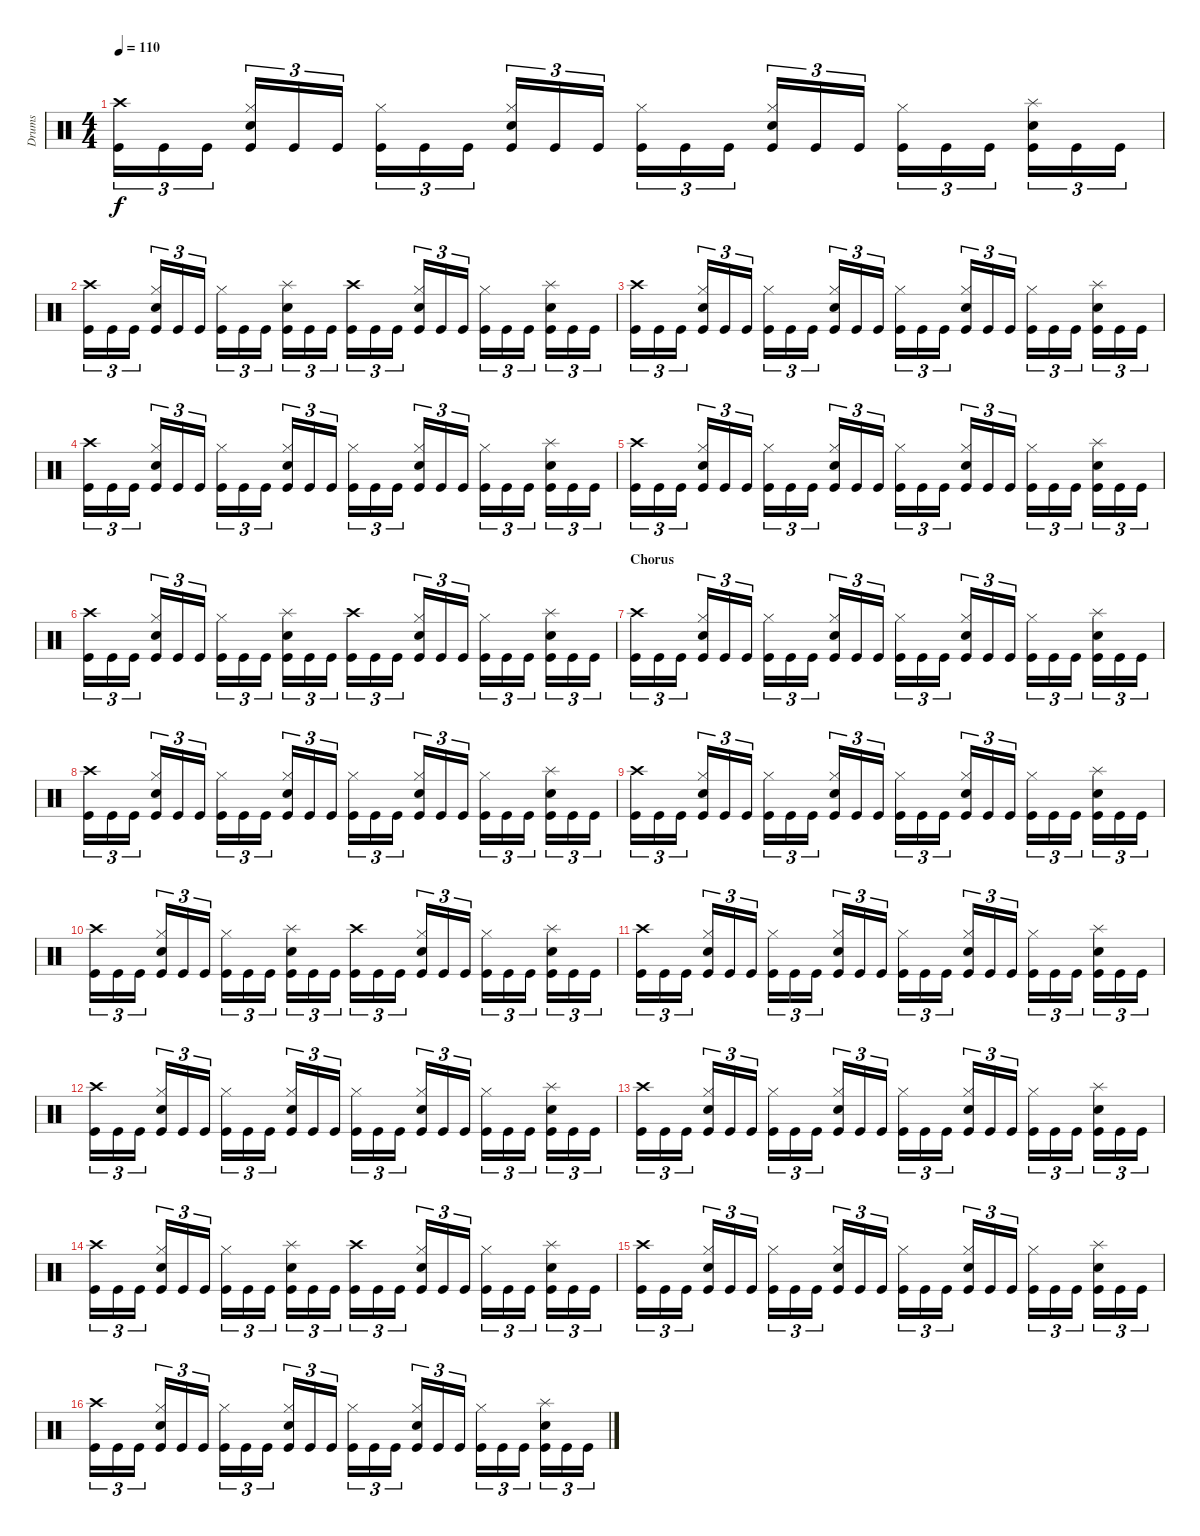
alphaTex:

\track ("Drums" "Drums") {instrument percussion}
\staff {score}
\articulation defaults
\ts (4 4)
\tempo 110
\clef neutral
\ks c
("Crash high (hit)" "Kick (hit)").16{tu (3 2) dy f} "Kick (hit)".16{tu (3 2)} "Kick (hit)".16{tu (3 2)} ("Hi-Hat (closed)" "Snare (hit) 2" "Kick (hit)").16{tu (3 2)} "Kick (hit)".16{tu (3 2)} "Kick (hit)".16{tu (3 2)} ("Hi-Hat (closed)" "Kick (hit)").16{tu (3 2)} "Kick (hit)".16{tu (3 2)} "Kick (hit)".16{tu (3 2)} ("Hi-Hat (closed)" "Snare (hit) 2" "Kick (hit)").16{tu (3 2)} "Kick (hit)".16{tu (3 2)} "Kick (hit)".16{tu (3 2)} ("Hi-Hat (closed)" "Kick (hit)").16{tu (3 2)} "Kick (hit)".16{tu (3 2)} "Kick (hit)".16{tu (3 2)} ("Hi-Hat (closed)" "Snare (hit) 2" "Kick (hit)").16{tu (3 2)} "Kick (hit)".16{tu (3 2)} "Kick (hit)".16{tu (3 2)} ("Hi-Hat (closed)" "Kick (hit)").16{tu (3 2)} "Kick (hit)".16{tu (3 2)} "Kick (hit)".16{tu (3 2)} ("Splash (hit)" "Snare (hit) 2" "Kick (hit)").16{tu (3 2)} "Kick (hit)".16{tu (3 2)} "Kick (hit)".16{tu (3 2)} |
("Crash high (hit)" "Kick (hit)").16{tu (3 2)} "Kick (hit)".16{tu (3 2)} "Kick (hit)".16{tu (3 2)} ("Hi-Hat (closed)" "Snare (hit) 2" "Kick (hit)").16{tu (3 2)} "Kick (hit)".16{tu (3 2)} "Kick (hit)".16{tu (3 2)} ("Hi-Hat (closed)" "Kick (hit)").16{tu (3 2)} "Kick (hit)".16{tu (3 2)} "Kick (hit)".16{tu (3 2)} ("Splash (hit)" "Snare (hit) 2" "Kick (hit)").16{tu (3 2)} "Kick (hit)".16{tu (3 2)} "Kick (hit)".16{tu (3 2)} ("Crash high (hit)" "Kick (hit)").16{tu (3 2)} "Kick (hit)".16{tu (3 2)} "Kick (hit)".16{tu (3 2)} ("Hi-Hat (closed)" "Snare (hit) 2" "Kick (hit)").16{tu (3 2)} "Kick (hit)".16{tu (3 2)} "Kick (hit)".16{tu (3 2)} ("Hi-Hat (closed)" "Kick (hit)").16{tu (3 2)} "Kick (hit)".16{tu (3 2)} "Kick (hit)".16{tu (3 2)} ("Splash (hit)" "Snare (hit) 2" "Kick (hit)").16{tu (3 2)} "Kick (hit)".16{tu (3 2)} "Kick (hit)".16{tu (3 2)} |
("Crash high (hit)" "Kick (hit)").16{tu (3 2)} "Kick (hit)".16{tu (3 2)} "Kick (hit)".16{tu (3 2)} ("Hi-Hat (closed)" "Snare (hit) 2" "Kick (hit)").16{tu (3 2)} "Kick (hit)".16{tu (3 2)} "Kick (hit)".16{tu (3 2)} ("Hi-Hat (closed)" "Kick (hit)").16{tu (3 2)} "Kick (hit)".16{tu (3 2)} "Kick (hit)".16{tu (3 2)} ("Hi-Hat (closed)" "Snare (hit) 2" "Kick (hit)").16{tu (3 2)} "Kick (hit)".16{tu (3 2)} "Kick (hit)".16{tu (3 2)} ("Hi-Hat (closed)" "Kick (hit)").16{tu (3 2)} "Kick (hit)".16{tu (3 2)} "Kick (hit)".16{tu (3 2)} ("Hi-Hat (closed)" "Snare (hit) 2" "Kick (hit)").16{tu (3 2)} "Kick (hit)".16{tu (3 2)} "Kick (hit)".16{tu (3 2)} ("Hi-Hat (closed)" "Kick (hit)").16{tu (3 2)} "Kick (hit)".16{tu (3 2)} "Kick (hit)".16{tu (3 2)} ("Splash (hit)" "Snare (hit) 2" "Kick (hit)").16{tu (3 2)} "Kick (hit)".16{tu (3 2)} "Kick (hit)".16{tu (3 2)} |
("Crash high (hit)" "Kick (hit)").16{tu (3 2)} "Kick (hit)".16{tu (3 2)} "Kick (hit)".16{tu (3 2)} ("Hi-Hat (closed)" "Snare (hit) 2" "Kick (hit)").16{tu (3 2)} "Kick (hit)".16{tu (3 2)} "Kick (hit)".16{tu (3 2)} ("Hi-Hat (closed)" "Kick (hit)").16{tu (3 2)} "Kick (hit)".16{tu (3 2)} "Kick (hit)".16{tu (3 2)} ("Hi-Hat (closed)" "Snare (hit) 2" "Kick (hit)").16{tu (3 2)} "Kick (hit)".16{tu (3 2)} "Kick (hit)".16{tu (3 2)} ("Hi-Hat (closed)" "Kick (hit)").16{tu (3 2)} "Kick (hit)".16{tu (3 2)} "Kick (hit)".16{tu (3 2)} ("Hi-Hat (closed)" "Snare (hit) 2" "Kick (hit)").16{tu (3 2)} "Kick (hit)".16{tu (3 2)} "Kick (hit)".16{tu (3 2)} ("Hi-Hat (closed)" "Kick (hit)").16{tu (3 2)} "Kick (hit)".16{tu (3 2)} "Kick (hit)".16{tu (3 2)} ("Splash (hit)" "Snare (hit) 2" "Kick (hit)").16{tu (3 2)} "Kick (hit)".16{tu (3 2)} "Kick (hit)".16{tu (3 2)} |
("Crash high (hit)" "Kick (hit)").16{tu (3 2)} "Kick (hit)".16{tu (3 2)} "Kick (hit)".16{tu (3 2)} ("Hi-Hat (closed)" "Snare (hit) 2" "Kick (hit)").16{tu (3 2)} "Kick (hit)".16{tu (3 2)} "Kick (hit)".16{tu (3 2)} ("Hi-Hat (closed)" "Kick (hit)").16{tu (3 2)} "Kick (hit)".16{tu (3 2)} "Kick (hit)".16{tu (3 2)} ("Hi-Hat (closed)" "Snare (hit) 2" "Kick (hit)").16{tu (3 2)} "Kick (hit)".16{tu (3 2)} "Kick (hit)".16{tu (3 2)} ("Hi-Hat (closed)" "Kick (hit)").16{tu (3 2)} "Kick (hit)".16{tu (3 2)} "Kick (hit)".16{tu (3 2)} ("Hi-Hat (closed)" "Snare (hit) 2" "Kick (hit)").16{tu (3 2)} "Kick (hit)".16{tu (3 2)} "Kick (hit)".16{tu (3 2)} ("Hi-Hat (closed)" "Kick (hit)").16{tu (3 2)} "Kick (hit)".16{tu (3 2)} "Kick (hit)".16{tu (3 2)} ("Splash (hit)" "Snare (hit) 2" "Kick (hit)").16{tu (3 2)} "Kick (hit)".16{tu (3 2)} "Kick (hit)".16{tu (3 2)} |
("Crash high (hit)" "Kick (hit)").16{tu (3 2)} "Kick (hit)".16{tu (3 2)} "Kick (hit)".16{tu (3 2)} ("Hi-Hat (closed)" "Snare (hit) 2" "Kick (hit)").16{tu (3 2)} "Kick (hit)".16{tu (3 2)} "Kick (hit)".16{tu (3 2)} ("Hi-Hat (closed)" "Kick (hit)").16{tu (3 2)} "Kick (hit)".16{tu (3 2)} "Kick (hit)".16{tu (3 2)} ("Splash (hit)" "Snare (hit) 2" "Kick (hit)").16{tu (3 2)} "Kick (hit)".16{tu (3 2)} "Kick (hit)".16{tu (3 2)} ("Crash high (hit)" "Kick (hit)").16{tu (3 2)} "Kick (hit)".16{tu (3 2)} "Kick (hit)".16{tu (3 2)} ("Hi-Hat (closed)" "Snare (hit) 2" "Kick (hit)").16{tu (3 2)} "Kick (hit)".16{tu (3 2)} "Kick (hit)".16{tu (3 2)} ("Hi-Hat (closed)" "Kick (hit)").16{tu (3 2)} "Kick (hit)".16{tu (3 2)} "Kick (hit)".16{tu (3 2)} ("Splash (hit)" "Snare (hit) 2" "Kick (hit)").16{tu (3 2)} "Kick (hit)".16{tu (3 2)} "Kick (hit)".16{tu (3 2)} |
\section ("" "Chorus")
("Crash high (hit)" "Kick (hit)").16{tu (3 2)} "Kick (hit)".16{tu (3 2)} "Kick (hit)".16{tu (3 2)} ("Hi-Hat (closed)" "Snare (hit) 2" "Kick (hit)").16{tu (3 2)} "Kick (hit)".16{tu (3 2)} "Kick (hit)".16{tu (3 2)} ("Hi-Hat (closed)" "Kick (hit)").16{tu (3 2)} "Kick (hit)".16{tu (3 2)} "Kick (hit)".16{tu (3 2)} ("Hi-Hat (closed)" "Snare (hit) 2" "Kick (hit)").16{tu (3 2)} "Kick (hit)".16{tu (3 2)} "Kick (hit)".16{tu (3 2)} ("Hi-Hat (closed)" "Kick (hit)").16{tu (3 2)} "Kick (hit)".16{tu (3 2)} "Kick (hit)".16{tu (3 2)} ("Hi-Hat (closed)" "Snare (hit) 2" "Kick (hit)").16{tu (3 2)} "Kick (hit)".16{tu (3 2)} "Kick (hit)".16{tu (3 2)} ("Hi-Hat (closed)" "Kick (hit)").16{tu (3 2)} "Kick (hit)".16{tu (3 2)} "Kick (hit)".16{tu (3 2)} ("Splash (hit)" "Snare (hit) 2" "Kick (hit)").16{tu (3 2)} "Kick (hit)".16{tu (3 2)} "Kick (hit)".16{tu (3 2)} |
("Crash high (hit)" "Kick (hit)").16{tu (3 2)} "Kick (hit)".16{tu (3 2)} "Kick (hit)".16{tu (3 2)} ("Hi-Hat (closed)" "Snare (hit) 2" "Kick (hit)").16{tu (3 2)} "Kick (hit)".16{tu (3 2)} "Kick (hit)".16{tu (3 2)} ("Hi-Hat (closed)" "Kick (hit)").16{tu (3 2)} "Kick (hit)".16{tu (3 2)} "Kick (hit)".16{tu (3 2)} ("Hi-Hat (closed)" "Snare (hit) 2" "Kick (hit)").16{tu (3 2)} "Kick (hit)".16{tu (3 2)} "Kick (hit)".16{tu (3 2)} ("Hi-Hat (closed)" "Kick (hit)").16{tu (3 2)} "Kick (hit)".16{tu (3 2)} "Kick (hit)".16{tu (3 2)} ("Hi-Hat (closed)" "Snare (hit) 2" "Kick (hit)").16{tu (3 2)} "Kick (hit)".16{tu (3 2)} "Kick (hit)".16{tu (3 2)} ("Hi-Hat (closed)" "Kick (hit)").16{tu (3 2)} "Kick (hit)".16{tu (3 2)} "Kick (hit)".16{tu (3 2)} ("Splash (hit)" "Snare (hit) 2" "Kick (hit)").16{tu (3 2)} "Kick (hit)".16{tu (3 2)} "Kick (hit)".16{tu (3 2)} |
("Crash high (hit)" "Kick (hit)").16{tu (3 2)} "Kick (hit)".16{tu (3 2)} "Kick (hit)".16{tu (3 2)} ("Hi-Hat (closed)" "Snare (hit) 2" "Kick (hit)").16{tu (3 2)} "Kick (hit)".16{tu (3 2)} "Kick (hit)".16{tu (3 2)} ("Hi-Hat (closed)" "Kick (hit)").16{tu (3 2)} "Kick (hit)".16{tu (3 2)} "Kick (hit)".16{tu (3 2)} ("Hi-Hat (closed)" "Snare (hit) 2" "Kick (hit)").16{tu (3 2)} "Kick (hit)".16{tu (3 2)} "Kick (hit)".16{tu (3 2)} ("Hi-Hat (closed)" "Kick (hit)").16{tu (3 2)} "Kick (hit)".16{tu (3 2)} "Kick (hit)".16{tu (3 2)} ("Hi-Hat (closed)" "Snare (hit) 2" "Kick (hit)").16{tu (3 2)} "Kick (hit)".16{tu (3 2)} "Kick (hit)".16{tu (3 2)} ("Hi-Hat (closed)" "Kick (hit)").16{tu (3 2)} "Kick (hit)".16{tu (3 2)} "Kick (hit)".16{tu (3 2)} ("Splash (hit)" "Snare (hit) 2" "Kick (hit)").16{tu (3 2)} "Kick (hit)".16{tu (3 2)} "Kick (hit)".16{tu (3 2)} |
("Crash high (hit)" "Kick (hit)").16{tu (3 2)} "Kick (hit)".16{tu (3 2)} "Kick (hit)".16{tu (3 2)} ("Hi-Hat (closed)" "Snare (hit) 2" "Kick (hit)").16{tu (3 2)} "Kick (hit)".16{tu (3 2)} "Kick (hit)".16{tu (3 2)} ("Hi-Hat (closed)" "Kick (hit)").16{tu (3 2)} "Kick (hit)".16{tu (3 2)} "Kick (hit)".16{tu (3 2)} ("Splash (hit)" "Snare (hit) 2" "Kick (hit)").16{tu (3 2)} "Kick (hit)".16{tu (3 2)} "Kick (hit)".16{tu (3 2)} ("Crash high (hit)" "Kick (hit)").16{tu (3 2)} "Kick (hit)".16{tu (3 2)} "Kick (hit)".16{tu (3 2)} ("Hi-Hat (closed)" "Snare (hit) 2" "Kick (hit)").16{tu (3 2)} "Kick (hit)".16{tu (3 2)} "Kick (hit)".16{tu (3 2)} ("Hi-Hat (closed)" "Kick (hit)").16{tu (3 2)} "Kick (hit)".16{tu (3 2)} "Kick (hit)".16{tu (3 2)} ("Splash (hit)" "Snare (hit) 2" "Kick (hit)").16{tu (3 2)} "Kick (hit)".16{tu (3 2)} "Kick (hit)".16{tu (3 2)} |
("Crash high (hit)" "Kick (hit)").16{tu (3 2)} "Kick (hit)".16{tu (3 2)} "Kick (hit)".16{tu (3 2)} ("Hi-Hat (closed)" "Snare (hit) 2" "Kick (hit)").16{tu (3 2)} "Kick (hit)".16{tu (3 2)} "Kick (hit)".16{tu (3 2)} ("Hi-Hat (closed)" "Kick (hit)").16{tu (3 2)} "Kick (hit)".16{tu (3 2)} "Kick (hit)".16{tu (3 2)} ("Hi-Hat (closed)" "Snare (hit) 2" "Kick (hit)").16{tu (3 2)} "Kick (hit)".16{tu (3 2)} "Kick (hit)".16{tu (3 2)} ("Hi-Hat (closed)" "Kick (hit)").16{tu (3 2)} "Kick (hit)".16{tu (3 2)} "Kick (hit)".16{tu (3 2)} ("Hi-Hat (closed)" "Snare (hit) 2" "Kick (hit)").16{tu (3 2)} "Kick (hit)".16{tu (3 2)} "Kick (hit)".16{tu (3 2)} ("Hi-Hat (closed)" "Kick (hit)").16{tu (3 2)} "Kick (hit)".16{tu (3 2)} "Kick (hit)".16{tu (3 2)} ("Splash (hit)" "Snare (hit) 2" "Kick (hit)").16{tu (3 2)} "Kick (hit)".16{tu (3 2)} "Kick (hit)".16{tu (3 2)} |
("Crash high (hit)" "Kick (hit)").16{tu (3 2)} "Kick (hit)".16{tu (3 2)} "Kick (hit)".16{tu (3 2)} ("Hi-Hat (closed)" "Snare (hit) 2" "Kick (hit)").16{tu (3 2)} "Kick (hit)".16{tu (3 2)} "Kick (hit)".16{tu (3 2)} ("Hi-Hat (closed)" "Kick (hit)").16{tu (3 2)} "Kick (hit)".16{tu (3 2)} "Kick (hit)".16{tu (3 2)} ("Hi-Hat (closed)" "Snare (hit) 2" "Kick (hit)").16{tu (3 2)} "Kick (hit)".16{tu (3 2)} "Kick (hit)".16{tu (3 2)} ("Hi-Hat (closed)" "Kick (hit)").16{tu (3 2)} "Kick (hit)".16{tu (3 2)} "Kick (hit)".16{tu (3 2)} ("Hi-Hat (closed)" "Snare (hit) 2" "Kick (hit)").16{tu (3 2)} "Kick (hit)".16{tu (3 2)} "Kick (hit)".16{tu (3 2)} ("Hi-Hat (closed)" "Kick (hit)").16{tu (3 2)} "Kick (hit)".16{tu (3 2)} "Kick (hit)".16{tu (3 2)} ("Splash (hit)" "Snare (hit) 2" "Kick (hit)").16{tu (3 2)} "Kick (hit)".16{tu (3 2)} "Kick (hit)".16{tu (3 2)} |
("Crash high (hit)" "Kick (hit)").16{tu (3 2)} "Kick (hit)".16{tu (3 2)} "Kick (hit)".16{tu (3 2)} ("Hi-Hat (closed)" "Snare (hit) 2" "Kick (hit)").16{tu (3 2)} "Kick (hit)".16{tu (3 2)} "Kick (hit)".16{tu (3 2)} ("Hi-Hat (closed)" "Kick (hit)").16{tu (3 2)} "Kick (hit)".16{tu (3 2)} "Kick (hit)".16{tu (3 2)} ("Hi-Hat (closed)" "Snare (hit) 2" "Kick (hit)").16{tu (3 2)} "Kick (hit)".16{tu (3 2)} "Kick (hit)".16{tu (3 2)} ("Hi-Hat (closed)" "Kick (hit)").16{tu (3 2)} "Kick (hit)".16{tu (3 2)} "Kick (hit)".16{tu (3 2)} ("Hi-Hat (closed)" "Snare (hit) 2" "Kick (hit)").16{tu (3 2)} "Kick (hit)".16{tu (3 2)} "Kick (hit)".16{tu (3 2)} ("Hi-Hat (closed)" "Kick (hit)").16{tu (3 2)} "Kick (hit)".16{tu (3 2)} "Kick (hit)".16{tu (3 2)} ("Splash (hit)" "Snare (hit) 2" "Kick (hit)").16{tu (3 2)} "Kick (hit)".16{tu (3 2)} "Kick (hit)".16{tu (3 2)} |
("Crash high (hit)" "Kick (hit)").16{tu (3 2)} "Kick (hit)".16{tu (3 2)} "Kick (hit)".16{tu (3 2)} ("Hi-Hat (closed)" "Snare (hit) 2" "Kick (hit)").16{tu (3 2)} "Kick (hit)".16{tu (3 2)} "Kick (hit)".16{tu (3 2)} ("Hi-Hat (closed)" "Kick (hit)").16{tu (3 2)} "Kick (hit)".16{tu (3 2)} "Kick (hit)".16{tu (3 2)} ("Splash (hit)" "Snare (hit) 2" "Kick (hit)").16{tu (3 2)} "Kick (hit)".16{tu (3 2)} "Kick (hit)".16{tu (3 2)} ("Crash high (hit)" "Kick (hit)").16{tu (3 2)} "Kick (hit)".16{tu (3 2)} "Kick (hit)".16{tu (3 2)} ("Hi-Hat (closed)" "Snare (hit) 2" "Kick (hit)").16{tu (3 2)} "Kick (hit)".16{tu (3 2)} "Kick (hit)".16{tu (3 2)} ("Hi-Hat (closed)" "Kick (hit)").16{tu (3 2)} "Kick (hit)".16{tu (3 2)} "Kick (hit)".16{tu (3 2)} ("Splash (hit)" "Snare (hit) 2" "Kick (hit)").16{tu (3 2)} "Kick (hit)".16{tu (3 2)} "Kick (hit)".16{tu (3 2)} |
("Crash high (hit)" "Kick (hit)").16{tu (3 2)} "Kick (hit)".16{tu (3 2)} "Kick (hit)".16{tu (3 2)} ("Hi-Hat (closed)" "Snare (hit) 2" "Kick (hit)").16{tu (3 2)} "Kick (hit)".16{tu (3 2)} "Kick (hit)".16{tu (3 2)} ("Hi-Hat (closed)" "Kick (hit)").16{tu (3 2)} "Kick (hit)".16{tu (3 2)} "Kick (hit)".16{tu (3 2)} ("Hi-Hat (closed)" "Snare (hit) 2" "Kick (hit)").16{tu (3 2)} "Kick (hit)".16{tu (3 2)} "Kick (hit)".16{tu (3 2)} ("Hi-Hat (closed)" "Kick (hit)").16{tu (3 2)} "Kick (hit)".16{tu (3 2)} "Kick (hit)".16{tu (3 2)} ("Hi-Hat (closed)" "Snare (hit) 2" "Kick (hit)").16{tu (3 2)} "Kick (hit)".16{tu (3 2)} "Kick (hit)".16{tu (3 2)} ("Hi-Hat (closed)" "Kick (hit)").16{tu (3 2)} "Kick (hit)".16{tu (3 2)} "Kick (hit)".16{tu (3 2)} ("Splash (hit)" "Snare (hit) 2" "Kick (hit)").16{tu (3 2)} "Kick (hit)".16{tu (3 2)} "Kick (hit)".16{tu (3 2)} |
("Crash high (hit)" "Kick (hit)").16{tu (3 2)} "Kick (hit)".16{tu (3 2)} "Kick (hit)".16{tu (3 2)} ("Hi-Hat (closed)" "Snare (hit) 2" "Kick (hit)").16{tu (3 2)} "Kick (hit)".16{tu (3 2)} "Kick (hit)".16{tu (3 2)} ("Hi-Hat (closed)" "Kick (hit)").16{tu (3 2)} "Kick (hit)".16{tu (3 2)} "Kick (hit)".16{tu (3 2)} ("Hi-Hat (closed)" "Snare (hit) 2" "Kick (hit)").16{tu (3 2)} "Kick (hit)".16{tu (3 2)} "Kick (hit)".16{tu (3 2)} ("Hi-Hat (closed)" "Kick (hit)").16{tu (3 2)} "Kick (hit)".16{tu (3 2)} "Kick (hit)".16{tu (3 2)} ("Hi-Hat (closed)" "Snare (hit) 2" "Kick (hit)").16{tu (3 2)} "Kick (hit)".16{tu (3 2)} "Kick (hit)".16{tu (3 2)} ("Hi-Hat (closed)" "Kick (hit)").16{tu (3 2)} "Kick (hit)".16{tu (3 2)} "Kick (hit)".16{tu (3 2)} ("Splash (hit)" "Snare (hit) 2" "Kick (hit)").16{tu (3 2)} "Kick (hit)".16{tu (3 2)} "Kick (hit)".16{tu (3 2)}
